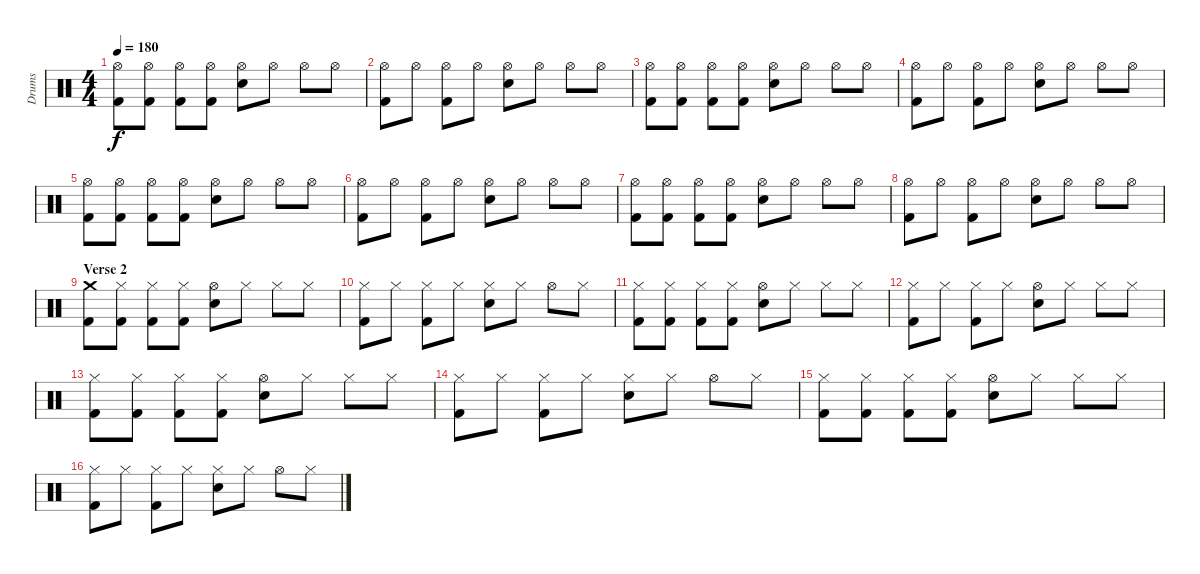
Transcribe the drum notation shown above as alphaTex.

\track ("Drums" "Drums") {instrument percussion}
\staff {score}
\articulation defaults
\ts (4 4)
\tempo 180
\clef neutral
\ks c
("Hi-Hat (open)" "Kick (hit) 2").8{dy f} ("Hi-Hat (open)" "Kick (hit) 2").8 ("Hi-Hat (open)" "Kick (hit) 2").8 ("Hi-Hat (open)" "Kick (hit) 2").8 ("Hi-Hat (open)" "Electric Snare (hit)").8 "Hi-Hat (open)".8 "Hi-Hat (open)".8 "Hi-Hat (open)".8 |
("Hi-Hat (open)" "Kick (hit) 2").8 "Hi-Hat (open)".8 ("Hi-Hat (open)" "Kick (hit) 2").8 "Hi-Hat (open)".8 ("Hi-Hat (open)" "Electric Snare (hit)").8 "Hi-Hat (open)".8 "Hi-Hat (open)".8 "Hi-Hat (open)".8 |
("Hi-Hat (open)" "Kick (hit) 2").8 ("Hi-Hat (open)" "Kick (hit) 2").8 ("Hi-Hat (open)" "Kick (hit) 2").8 ("Hi-Hat (open)" "Kick (hit) 2").8 ("Hi-Hat (open)" "Electric Snare (hit)").8 "Hi-Hat (open)".8 "Hi-Hat (open)".8 "Hi-Hat (open)".8 |
("Hi-Hat (open)" "Kick (hit) 2").8 "Hi-Hat (open)".8 ("Hi-Hat (open)" "Kick (hit) 2").8 "Hi-Hat (open)".8 ("Hi-Hat (open)" "Electric Snare (hit)").8 "Hi-Hat (open)".8 "Hi-Hat (open)".8 "Hi-Hat (open)".8 |
("Hi-Hat (open)" "Kick (hit) 2").8 ("Hi-Hat (open)" "Kick (hit) 2").8 ("Hi-Hat (open)" "Kick (hit) 2").8 ("Hi-Hat (open)" "Kick (hit) 2").8 ("Hi-Hat (open)" "Electric Snare (hit)").8 "Hi-Hat (open)".8 "Hi-Hat (open)".8 "Hi-Hat (open)".8 |
("Hi-Hat (open)" "Kick (hit) 2").8 "Hi-Hat (open)".8 ("Hi-Hat (open)" "Kick (hit) 2").8 "Hi-Hat (open)".8 ("Hi-Hat (open)" "Electric Snare (hit)").8 "Hi-Hat (open)".8 "Hi-Hat (open)".8 "Hi-Hat (open)".8 |
("Hi-Hat (open)" "Kick (hit) 2").8 ("Hi-Hat (open)" "Kick (hit) 2").8 ("Hi-Hat (open)" "Kick (hit) 2").8 ("Hi-Hat (open)" "Kick (hit) 2").8 ("Hi-Hat (open)" "Electric Snare (hit)").8 "Hi-Hat (open)".8 "Hi-Hat (open)".8 "Hi-Hat (open)".8 |
("Hi-Hat (open)" "Kick (hit) 2").8 "Hi-Hat (open)".8 ("Hi-Hat (open)" "Kick (hit) 2").8 "Hi-Hat (open)".8 ("Hi-Hat (open)" "Electric Snare (hit)").8 "Hi-Hat (open)".8 "Hi-Hat (open)".8 "Hi-Hat (open)".8 |
\section ("" "Verse 2")
("Crash medium (hit)" "Kick (hit) 2").8 ("Hi-Hat (closed)" "Kick (hit) 2").8 ("Hi-Hat (closed)" "Kick (hit) 2").8 ("Hi-Hat (closed)" "Kick (hit) 2").8 ("Hi-Hat (open)" "Electric Snare (hit)").8 "Hi-Hat (closed)".8 "Hi-Hat (closed)".8 "Hi-Hat (closed)".8 |
("Hi-Hat (closed)" "Kick (hit) 2").8 "Hi-Hat (closed)".8 ("Hi-Hat (closed)" "Kick (hit) 2").8 "Hi-Hat (closed)".8 ("Hi-Hat (closed)" "Electric Snare (hit)").8 "Hi-Hat (closed)".8 "Hi-Hat (open)".8 "Hi-Hat (closed)".8 |
("Hi-Hat (closed)" "Kick (hit) 2").8 ("Hi-Hat (closed)" "Kick (hit) 2").8 ("Hi-Hat (closed)" "Kick (hit) 2").8 ("Hi-Hat (closed)" "Kick (hit) 2").8 ("Hi-Hat (open)" "Electric Snare (hit)").8 "Hi-Hat (closed)".8 "Hi-Hat (closed)".8 "Hi-Hat (closed)".8 |
("Hi-Hat (closed)" "Kick (hit) 2").8 "Hi-Hat (closed)".8 ("Hi-Hat (closed)" "Kick (hit) 2").8 "Hi-Hat (closed)".8 ("Hi-Hat (open)" "Electric Snare (hit)").8 "Hi-Hat (closed)".8 "Hi-Hat (closed)".8 "Hi-Hat (closed)".8 |
("Hi-Hat (closed)" "Kick (hit) 2").8 ("Hi-Hat (closed)" "Kick (hit) 2").8 ("Hi-Hat (closed)" "Kick (hit) 2").8 ("Hi-Hat (closed)" "Kick (hit) 2").8 ("Hi-Hat (open)" "Electric Snare (hit)").8 "Hi-Hat (closed)".8 "Hi-Hat (closed)".8 "Hi-Hat (closed)".8 |
("Hi-Hat (closed)" "Kick (hit) 2").8 "Hi-Hat (closed)".8 ("Hi-Hat (closed)" "Kick (hit) 2").8 "Hi-Hat (closed)".8 ("Hi-Hat (closed)" "Electric Snare (hit)").8 "Hi-Hat (closed)".8 "Hi-Hat (open)".8 "Hi-Hat (closed)".8 |
("Hi-Hat (closed)" "Kick (hit) 2").8 ("Hi-Hat (closed)" "Kick (hit) 2").8 ("Hi-Hat (closed)" "Kick (hit) 2").8 ("Hi-Hat (closed)" "Kick (hit) 2").8 ("Hi-Hat (open)" "Electric Snare (hit)").8 "Hi-Hat (closed)".8 "Hi-Hat (closed)".8 "Hi-Hat (closed)".8 |
("Hi-Hat (closed)" "Kick (hit) 2").8 "Hi-Hat (closed)".8 ("Hi-Hat (closed)" "Kick (hit) 2").8 "Hi-Hat (closed)".8 ("Hi-Hat (closed)" "Electric Snare (hit)").8 "Hi-Hat (closed)".8 "Hi-Hat (open)".8 "Hi-Hat (closed)".8
